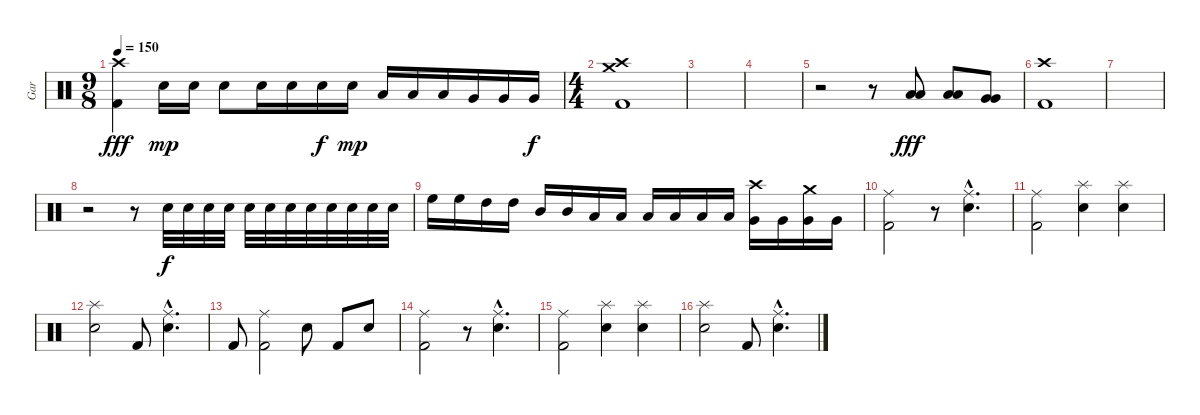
\track ("Gar" "Gar") {instrument percussion}
\staff {score}
\articulation defaults
\ts (9 8)
\tempo 150
\clef neutral
\ks c
("Crash high (hit)" "Kick (hit) 2").4{dy fff} "Snare (hit) 2".16{dy mp} "Snare (hit) 2".16 "Snare (hit) 2".8 "Snare (hit) 2".16 "Snare (hit) 2".16 "Snare (hit) 2".16{dy f} "Snare (hit) 2".16{dy mp} "Low Floor Tom (hit)".16 "Low Floor Tom (hit)".16 "Low Floor Tom (hit)".16 "Very Low Tom (hit)".16 "Very Low Tom (hit)".16 "Very Low Tom (hit)".16{dy f} |
\ts (4 4)
("Crash medium (hit)" "Crash high (hit)" "Kick (hit) 2").1 |
|
|
r.2 r.8 ("Low Tom (hit)" "Low Tom (hit)").8{dy fff} ("Low Floor Tom (hit)" "Low Floor Tom (hit)").8 ("Very Low Tom (hit)" "Very Low Tom (hit)").8 |
("Crash high (hit)" "Kick (hit) 2").1 |
|
r.2 r.8 "Snare (hit) 2".32{dy f} "Snare (hit) 2".32 "Snare (hit) 2".32 "Snare (hit) 2".32 "Snare (hit) 2".32 "Snare (hit) 2".32 "Snare (hit) 2".32 "Snare (hit) 2".32 "Snare (hit) 2".32 "Snare (hit) 2".32 "Snare (hit) 2".32 "Snare (hit) 2".32 |
"High Floor Tom (hit)".16 "High Floor Tom (hit)".16 "High Tom (hit)".16 "High Tom (hit)".16 "Mid Tom (hit)".16 "Mid Tom (hit)".16 "Low Tom (hit)".16 "Low Tom (hit)".16 "Low Floor Tom (hit)".16 "Low Floor Tom (hit)".16 "Low Floor Tom (hit)".16 "Low Floor Tom (hit)".16 ("Crash high (hit)" "Very Low Tom (hit)").16 "Very Low Tom (hit)".16 ("Crash medium (hit)" "Very Low Tom (hit)").16 "Very Low Tom (hit)".16 |
("Ride (middle)" "Kick (hit) 2").2 r.8 ("Ride (middle)"{hac} "Snare (hit) 2"{hac}).4{d} |
("Ride (middle)" "Kick (hit) 2").2 ("Splash (hit)" "Snare (hit) 2").4 ("Splash (hit)" "Snare (hit) 2").4 |
("Splash (hit)" "Snare (hit) 2").2 "Kick (hit) 2".8 ("Ride (middle)"{hac} "Snare (hit) 2"{hac}).4{d} |
"Kick (hit) 2".8 ("Ride (middle)" "Kick (hit) 2").2 "Snare (hit) 2".8 "Kick (hit) 2".8 "Snare (hit) 2".8 |
("Ride (middle)" "Kick (hit) 2").2 r.8 ("Ride (middle)"{hac} "Snare (hit) 2"{hac}).4{d} |
("Ride (middle)" "Kick (hit) 2").2 ("Splash (hit)" "Snare (hit) 2").4 ("Splash (hit)" "Snare (hit) 2").4 |
("Splash (hit)" "Snare (hit) 2").2 "Kick (hit) 2".8 ("Ride (middle)"{hac} "Snare (hit) 2"{hac}).4{d}
